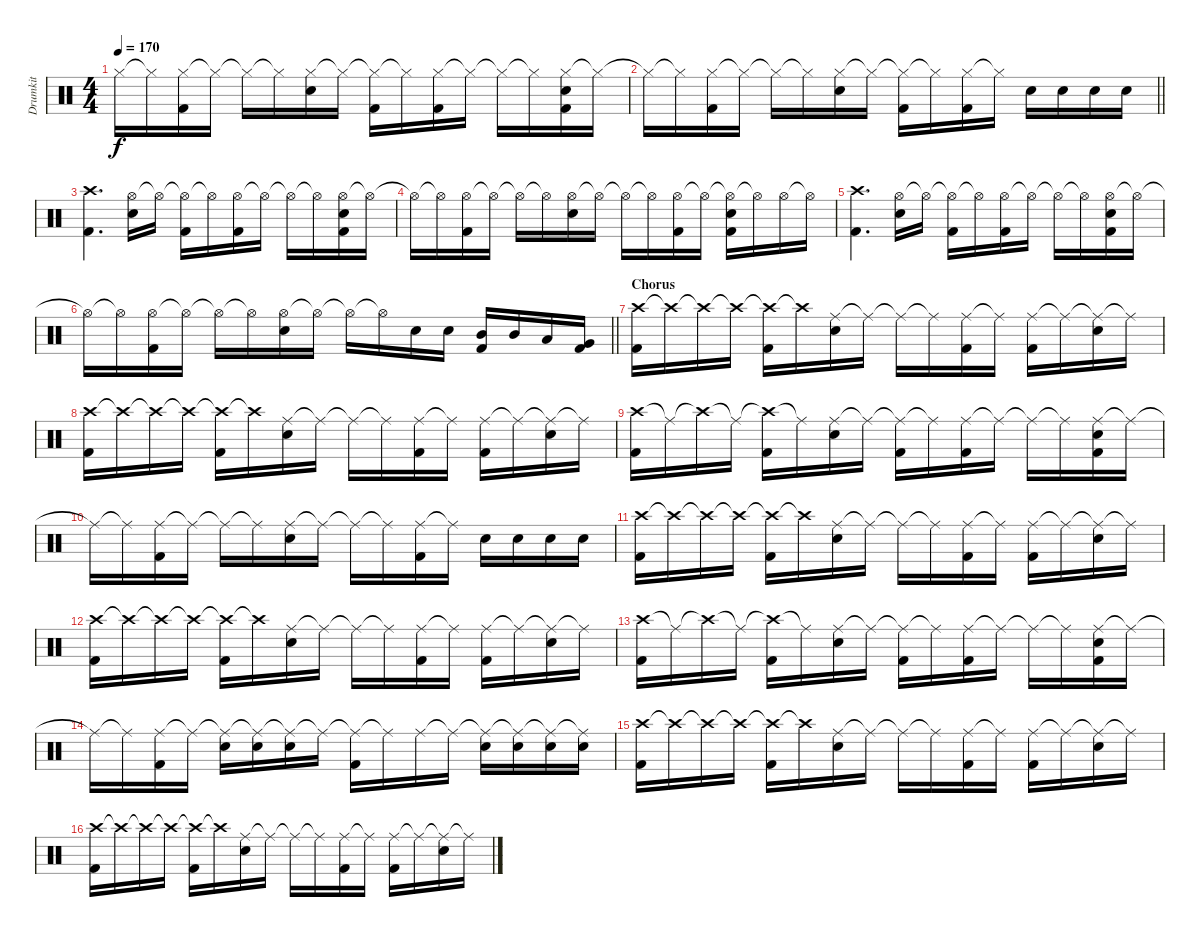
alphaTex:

\track ("Drumkit" "Drumkit") {instrument percussion}
\staff {score}
\articulation defaults
\ts (4 4)
\tempo 170
\clef neutral
\ks c "Hi-Hat (closed)"{t}.16{dy f} "Hi-Hat (closed)"{t}.16
("Hi-Hat (closed)" "Kick (hit) 2").16 "Hi-Hat (closed)"{t}.16 "Hi-Hat (closed)"{t}.16 "Hi-Hat (closed)"{t}.16 ("Hi-Hat (closed)" "Snare (hit) 2").16 "Hi-Hat (closed)"{t}.16 ("Hi-Hat (closed)"{t} "Kick (hit) 2").16 "Hi-Hat (closed)"{t}.16 ("Hi-Hat (closed)" "Kick (hit) 2").16 "Hi-Hat (closed)"{t}.16 "Hi-Hat (closed)"{t}.16 "Hi-Hat (closed)"{t}.16 ("Hi-Hat (closed)" "Snare (hit) 2" "Kick (hit) 2").16 "Hi-Hat (closed)"{t}.16 |
\barLineRight lightlight "Hi-Hat (closed)"{t}.16 "Hi-Hat (closed)"{t}.16
("Hi-Hat (closed)" "Kick (hit) 2").16 "Hi-Hat (closed)"{t}.16 "Hi-Hat (closed)"{t}.16 "Hi-Hat (closed)"{t}.16 ("Hi-Hat (closed)" "Snare (hit) 2").16 "Hi-Hat (closed)"{t}.16 ("Hi-Hat (closed)"{t} "Kick (hit) 2").16 "Hi-Hat (closed)"{t}.16 ("Hi-Hat (closed)" "Kick (hit) 2").16 "Hi-Hat (closed)"{t}.16 "Snare (hit) 2".16 "Snare (hit) 2".16 "Snare (hit) 2".16 "Snare (hit) 2".16 |
("Crash high (hit)" "Kick (hit) 2").4{d} ("Hi-Hat (open)" "Snare (hit) 2").16 "Hi-Hat (open)"{t}.16 ("Hi-Hat (open)"{t} "Kick (hit) 2").16 "Hi-Hat (open)"{t}.16 ("Hi-Hat (open)" "Kick (hit) 2").16 "Hi-Hat (open)"{t}.16 "Hi-Hat (open)"{t}.16 "Hi-Hat (open)"{t}.16 ("Hi-Hat (open)" "Snare (hit) 2" "Kick (hit) 2").16 "Hi-Hat (open)"{t}.16 |
"Hi-Hat (open)"{t}.16 "Hi-Hat (open)"{t}.16 ("Hi-Hat (open)" "Kick (hit) 2").16 "Hi-Hat (open)"{t}.16 "Hi-Hat (open)"{t}.16 "Hi-Hat (open)"{t}.16 ("Hi-Hat (open)" "Snare (hit) 2").16 "Hi-Hat (open)"{t}.16 "Hi-Hat (open)"{t}.16 "Hi-Hat (open)"{t}.16 ("Hi-Hat (open)" "Kick (hit) 2").16 "Hi-Hat (open)"{t}.16 ("Hi-Hat (open)"{t} "Snare (hit) 2" "Kick (hit) 2").16 "Hi-Hat (open)"{t}.16 "Hi-Hat (open)".16 "Hi-Hat (open)"{t}.16 |
("Crash high (hit)" "Kick (hit) 2").4{d} ("Hi-Hat (open)" "Snare (hit) 2").16 "Hi-Hat (open)"{t}.16 ("Hi-Hat (open)"{t} "Kick (hit) 2").16 "Hi-Hat (open)"{t}.16 ("Hi-Hat (open)" "Kick (hit) 2").16 "Hi-Hat (open)"{t}.16 "Hi-Hat (open)"{t}.16 "Hi-Hat (open)"{t}.16 ("Hi-Hat (open)" "Snare (hit) 2" "Kick (hit) 2").16 "Hi-Hat (open)"{t}.16 |
\barLineRight lightlight "Hi-Hat (open)"{t}.16 "Hi-Hat (open)"{t}.16
("Hi-Hat (open)" "Kick (hit) 2").16 "Hi-Hat (open)"{t}.16 "Hi-Hat (open)"{t}.16 "Hi-Hat (open)"{t}.16 ("Hi-Hat (open)" "Snare (hit) 2").16 "Hi-Hat (open)"{t}.16 "Hi-Hat (open)"{t}.16 "Hi-Hat (open)"{t}.16 "Snare (hit) 2".16 "Snare (hit) 2".16 ("Mid Tom (hit)" "Kick (hit) 2").16 "Mid Tom (hit)".16 "Low Tom (hit)".16 ("Very Low Tom (hit)" "Kick (hit) 2").16 |
\section ("" "Chorus")
("Crash high (hit)" "Kick (hit) 2").16 "Crash high (hit)"{t}.16 "Crash high (hit)"{t}.16 "Crash high (hit)"{t}.16 ("Crash high (hit)"{t} "Kick (hit) 2").16 "Crash high (hit)"{t}.16 ("Ride (middle)" "Snare (hit) 2").16 "Ride (middle)"{t}.16 "Ride (middle)"{t}.16 "Ride (middle)"{t}.16 ("Ride (middle)" "Kick (hit) 2").16 "Ride (middle)"{t}.16 ("Ride (middle)" "Kick (hit) 2").16 "Ride (middle)"{t}.16 ("Ride (middle)"{t} "Snare (hit) 2").16 "Ride (middle)"{t}.16 |
("Crash high (hit)" "Kick (hit) 2").16 "Crash high (hit)"{t}.16 "Crash high (hit)"{t}.16 "Crash high (hit)"{t}.16 ("Crash high (hit)"{t} "Kick (hit) 2").16 "Crash high (hit)"{t}.16 ("Ride (middle)" "Snare (hit) 2").16 "Ride (middle)"{t}.16 "Ride (middle)"{t}.16 "Ride (middle)"{t}.16 ("Ride (middle)" "Kick (hit) 2").16 "Ride (middle)"{t}.16 ("Ride (middle)" "Kick (hit) 2").16 "Ride (middle)"{t}.16 ("Ride (middle)"{t} "Snare (hit) 2").16 "Ride (middle)"{t}.16 |
("Crash high (hit)" "Kick (hit) 2").16 "Ride (middle)"{t}.16 "Crash high (hit)"{t}.16 "Ride (middle)"{t}.16 ("Crash high (hit)"{t} "Kick (hit) 2").16 "Ride (middle)"{t}.16 ("Ride (middle)" "Snare (hit) 2").16 "Ride (middle)"{t}.16 ("Ride (middle)"{t} "Kick (hit) 2").16 "Ride (middle)"{t}.16 ("Ride (middle)" "Kick (hit) 2").16 "Ride (middle)"{t}.16 "Ride (middle)"{t}.16 "Ride (middle)"{t}.16 ("Ride (middle)" "Snare (hit) 2" "Kick (hit) 2").16 "Ride (middle)"{t}.16 |
"Ride (middle)"{t}.16 "Ride (middle)"{t}.16 ("Ride (middle)" "Kick (hit) 2").16 "Ride (middle)"{t}.16 "Ride (middle)"{t}.16 "Ride (middle)"{t}.16 ("Ride (middle)" "Snare (hit) 2").16 "Ride (middle)"{t}.16 "Ride (middle)"{t}.16 "Ride (middle)"{t}.16 ("Ride (middle)" "Kick (hit) 2").16 "Ride (middle)"{t}.16 "Snare (hit) 2".16 "Snare (hit) 2".16 "Snare (hit) 2".16 "Snare (hit) 2".16 |
("Crash high (hit)" "Kick (hit) 2").16 "Crash high (hit)"{t}.16 "Crash high (hit)"{t}.16 "Crash high (hit)"{t}.16 ("Crash high (hit)"{t} "Kick (hit) 2").16 "Crash high (hit)"{t}.16 ("Ride (middle)" "Snare (hit) 2").16 "Ride (middle)"{t}.16 "Ride (middle)"{t}.16 "Ride (middle)"{t}.16 ("Ride (middle)" "Kick (hit) 2").16 "Ride (middle)"{t}.16 ("Ride (middle)" "Kick (hit) 2").16 "Ride (middle)"{t}.16 ("Ride (middle)"{t} "Snare (hit) 2").16 "Ride (middle)"{t}.16 |
("Crash high (hit)" "Kick (hit) 2").16 "Crash high (hit)"{t}.16 "Crash high (hit)"{t}.16 "Crash high (hit)"{t}.16 ("Crash high (hit)"{t} "Kick (hit) 2").16 "Crash high (hit)"{t}.16 ("Ride (middle)" "Snare (hit) 2").16 "Ride (middle)"{t}.16 "Ride (middle)"{t}.16 "Ride (middle)"{t}.16 ("Ride (middle)" "Kick (hit) 2").16 "Ride (middle)"{t}.16 ("Ride (middle)" "Kick (hit) 2").16 "Ride (middle)"{t}.16 ("Ride (middle)"{t} "Snare (hit) 2").16 "Ride (middle)"{t}.16 |
("Crash high (hit)" "Kick (hit) 2").16 "Ride (middle)"{t}.16 "Crash high (hit)"{t}.16 "Ride (middle)"{t}.16 ("Crash high (hit)"{t} "Kick (hit) 2").16 "Ride (middle)"{t}.16 ("Ride (middle)" "Snare (hit) 2").16 "Ride (middle)"{t}.16 ("Ride (middle)"{t} "Kick (hit) 2").16 "Ride (middle)"{t}.16 ("Ride (middle)" "Kick (hit) 2").16 "Ride (middle)"{t}.16 "Ride (middle)"{t}.16 "Ride (middle)"{t}.16 ("Ride (middle)" "Snare (hit) 2" "Kick (hit) 2").16 "Ride (middle)"{t}.16 |
"Ride (middle)"{t}.16 "Ride (middle)"{t}.16 ("Ride (middle)" "Kick (hit) 2").16 "Ride (middle)"{t}.16 ("Ride (middle)"{t} "Snare (hit) 2").16 ("Ride (middle)"{t} "Snare (hit) 2").16 ("Ride (middle)"{t} "Snare (hit) 2").16 "Ride (middle)"{t}.16 ("Ride (middle)"{t} "Kick (hit) 2").16 "Ride (middle)"{t}.16 "Ride (middle)".16 "Ride (middle)"{t}.16 ("Ride (middle)"{t} "Snare (hit) 2").16 ("Ride (middle)"{t} "Snare (hit) 2").16 ("Ride (middle)"{t} "Snare (hit) 2").16 ("Ride (middle)"{t} "Snare (hit) 2").16 |
("Crash high (hit)" "Kick (hit) 2").16 "Crash high (hit)"{t}.16 "Crash high (hit)"{t}.16 "Crash high (hit)"{t}.16 ("Crash high (hit)"{t} "Kick (hit) 2").16 "Crash high (hit)"{t}.16 ("Ride (middle)" "Snare (hit) 2").16 "Ride (middle)"{t}.16 "Ride (middle)"{t}.16 "Ride (middle)"{t}.16 ("Ride (middle)" "Kick (hit) 2").16 "Ride (middle)"{t}.16 ("Ride (middle)" "Kick (hit) 2").16 "Ride (middle)"{t}.16 ("Ride (middle)"{t} "Snare (hit) 2").16 "Ride (middle)"{t}.16 |
("Crash high (hit)" "Kick (hit) 2").16 "Crash high (hit)"{t}.16 "Crash high (hit)"{t}.16 "Crash high (hit)"{t}.16 ("Crash high (hit)"{t} "Kick (hit) 2").16 "Crash high (hit)"{t}.16 ("Ride (middle)" "Snare (hit) 2").16 "Ride (middle)"{t}.16 "Ride (middle)"{t}.16 "Ride (middle)"{t}.16 ("Ride (middle)" "Kick (hit) 2").16 "Ride (middle)"{t}.16 ("Ride (middle)" "Kick (hit) 2").16 "Ride (middle)"{t}.16 ("Ride (middle)"{t} "Snare (hit) 2").16 "Ride (middle)"{t}.16
